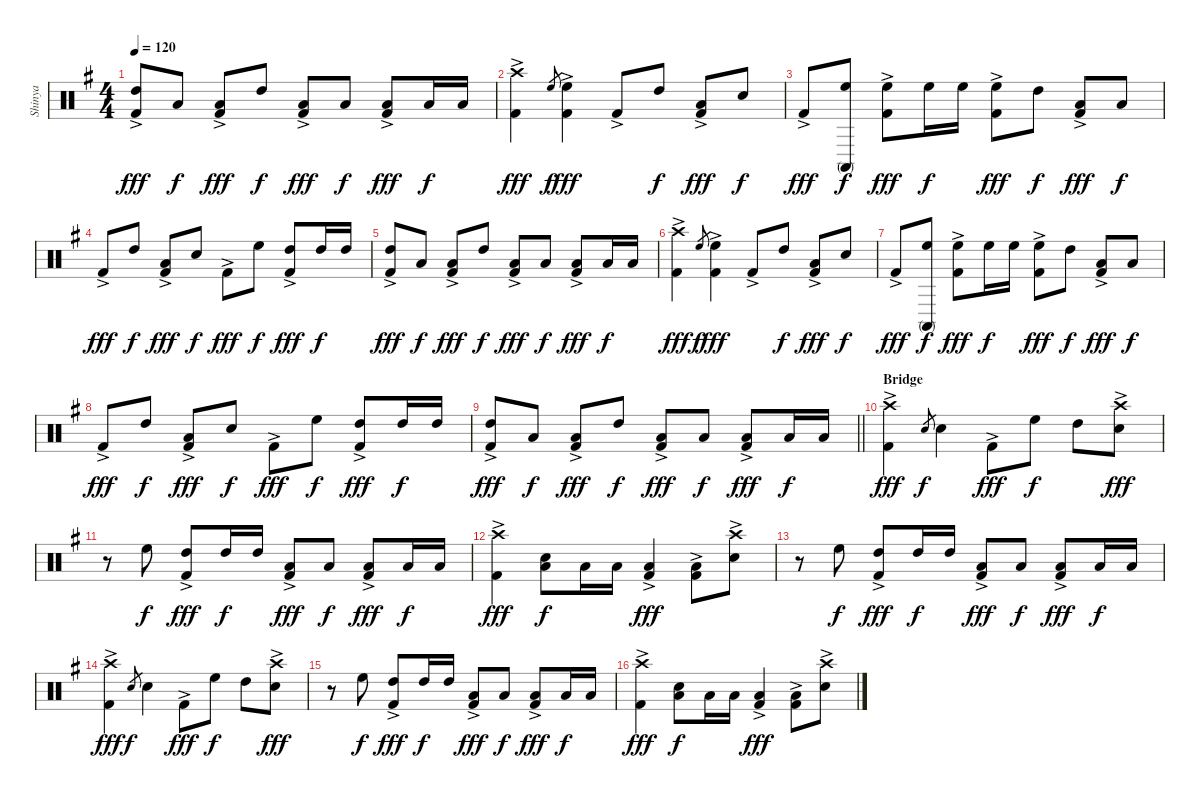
\track ("Shinya" "Shinya") {instrument percussion}
\staff {score}
\articulation defaults
\ts (4 4)
\tempo 120
\clef neutral
\ks g
("High Tom (hit)" "Kick (hit) 2"{ac}).8{dy fff} "Low Tom (hit)".8{dy f} ("Low Floor Tom (hit)" "Kick (hit) 2"{ac}).8{dy fff} "High Tom (hit)".8{dy f} ("Low Tom (hit)" "Kick (hit) 2"{ac}).8{dy fff} "Low Floor Tom (hit)".8{dy f} ("Low Floor Tom (hit)" "Kick (hit) 2"{ac}).8{dy fff} "Low Floor Tom (hit)".16{dy f} "Low Floor Tom (hit)".16 |
("Crash high (hit)"{ac} "Kick (hit) 2").4{dy fff} "High Floor Tom (hit)".8{gr dy f} ("High Floor Tom (hit)" "Kick (hit) 2"{ac}).4{dy fff} "Kick (hit) 2"{ac}.8 "High Tom (hit)".8{dy f} ("Low Tom (hit)" "Kick (hit) 2"{ac}).8{dy fff} "Snare (hit) 2".8{dy f} |
"Kick (hit) 2"{ac}.8{dy fff} ("Conga high (mute)" "High Floor Tom (hit)").8{dy f} ("High Floor Tom (hit)" "Kick (hit) 2"{ac}).8{dy fff} "High Floor Tom (hit)".16{dy f} "High Floor Tom (hit)".16 ("High Floor Tom (hit)" "Kick (hit) 2"{ac}).8{dy fff} "High Tom (hit)".8{dy f} ("Low Tom (hit)" "Kick (hit) 2"{ac}).8{dy fff} "Low Floor Tom (hit)".8{dy f} |
"Kick (hit) 2"{ac}.8{dy fff} "High Tom (hit)".8{dy f} ("Low Tom (hit)" "Kick (hit) 2"{ac}).8{dy fff} "Snare (hit) 2".8{dy f} "Kick (hit) 2"{ac}.8{dy fff} "High Floor Tom (hit)".8{dy f} ("High Tom (hit)" "Kick (hit) 2"{ac}).8{dy fff} "High Tom (hit)".16{dy f} "High Tom (hit)".16 |
("High Tom (hit)" "Kick (hit) 2"{ac}).8{dy fff} "Low Tom (hit)".8{dy f} ("Low Floor Tom (hit)" "Kick (hit) 2"{ac}).8{dy fff} "High Tom (hit)".8{dy f} ("Low Tom (hit)" "Kick (hit) 2"{ac}).8{dy fff} "Low Floor Tom (hit)".8{dy f} ("Low Floor Tom (hit)" "Kick (hit) 2"{ac}).8{dy fff} "Low Floor Tom (hit)".16{dy f} "Low Floor Tom (hit)".16 |
("Crash high (hit)"{ac} "Kick (hit) 2").4{dy fff} "High Floor Tom (hit)".8{gr dy f} ("High Floor Tom (hit)" "Kick (hit) 2"{ac}).4{dy fff} "Kick (hit) 2"{ac}.8 "High Tom (hit)".8{dy f} ("Low Tom (hit)" "Kick (hit) 2"{ac}).8{dy fff} "Snare (hit) 2".8{dy f} |
"Kick (hit) 2"{ac}.8{dy fff} ("Conga high (mute)" "High Floor Tom (hit)").8{dy f} ("High Floor Tom (hit)" "Kick (hit) 2"{ac}).8{dy fff} "High Floor Tom (hit)".16{dy f} "High Floor Tom (hit)".16 ("High Floor Tom (hit)" "Kick (hit) 2"{ac}).8{dy fff} "High Tom (hit)".8{dy f} ("Low Tom (hit)" "Kick (hit) 2"{ac}).8{dy fff} "Low Floor Tom (hit)".8{dy f} |
"Kick (hit) 2"{ac}.8{dy fff} "High Tom (hit)".8{dy f} ("Low Tom (hit)" "Kick (hit) 2"{ac}).8{dy fff} "Snare (hit) 2".8{dy f} "Kick (hit) 2"{ac}.8{dy fff} "High Floor Tom (hit)".8{dy f} ("High Tom (hit)" "Kick (hit) 2"{ac}).8{dy fff} "High Tom (hit)".16{dy f} "High Tom (hit)".16 |
\barLineRight lightlight
("High Tom (hit)" "Kick (hit) 2"{ac}).8{dy fff} "Low Tom (hit)".8{dy f} ("Low Floor Tom (hit)" "Kick (hit) 2"{ac}).8{dy fff} "High Tom (hit)".8{dy f} ("Low Tom (hit)" "Kick (hit) 2"{ac}).8{dy fff} "Low Floor Tom (hit)".8{dy f} ("Low Floor Tom (hit)" "Kick (hit) 2"{ac}).8{dy fff} "Low Floor Tom (hit)".16{dy f} "Low Floor Tom (hit)".16 |
\section ("" "Bridge")
("Crash high (hit)"{ac} "Kick (hit) 2"{ac}).4{dy fff} "Snare (hit) 2".8{gr dy f} "Snare (hit) 2".4 "Kick (hit) 2"{ac}.8{dy fff} "High Floor Tom (hit)".8{dy f} "High Tom (hit)".8 ("Crash high (hit)"{ac} "Snare (hit) 2").8{dy fff} |
r.8 "High Floor Tom (hit)".8{dy f} ("High Tom (hit)" "Kick (hit) 2"{ac}).8{dy fff} "High Tom (hit)".16{dy f} "High Tom (hit)".16 ("Low Tom (hit)" "Kick (hit) 2"{ac}).8{dy fff} "Low Tom (hit)".8{dy f} ("Low Floor Tom (hit)" "Kick (hit) 2"{ac}).8{dy fff} "Low Floor Tom (hit)".16{dy f} "Low Floor Tom (hit)".16 |
("Crash high (hit)"{ac} "Kick (hit) 2"{ac}).4{dy fff} ("Snare (hit) 2" "Low Floor Tom (hit)").8{dy f} "Low Floor Tom (hit)".16 "Low Floor Tom (hit)".16 ("Low Floor Tom (hit)" "Kick (hit) 2"{ac}).4{dy fff} ("Low Floor Tom (hit)" "Kick (hit) 2"{ac}).8 ("Crash high (hit)"{ac} "Snare (hit) 2").8 |
r.8 "High Floor Tom (hit)".8{dy f} ("High Tom (hit)" "Kick (hit) 2"{ac}).8{dy fff} "High Tom (hit)".16{dy f} "High Tom (hit)".16 ("Low Tom (hit)" "Kick (hit) 2"{ac}).8{dy fff} "Low Tom (hit)".8{dy f} ("Low Floor Tom (hit)" "Kick (hit) 2"{ac}).8{dy fff} "Low Floor Tom (hit)".16{dy f} "Low Floor Tom (hit)".16 |
("Crash high (hit)"{ac} "Kick (hit) 2"{ac}).4{dy fff} "Snare (hit) 2".8{gr dy f} "Snare (hit) 2".4 "Kick (hit) 2"{ac}.8{dy fff} "High Floor Tom (hit)".8{dy f} "High Tom (hit)".8 ("Crash high (hit)"{ac} "Snare (hit) 2").8{dy fff} |
r.8 "High Floor Tom (hit)".8{dy f} ("High Tom (hit)" "Kick (hit) 2"{ac}).8{dy fff} "High Tom (hit)".16{dy f} "High Tom (hit)".16 ("Low Tom (hit)" "Kick (hit) 2"{ac}).8{dy fff} "Low Tom (hit)".8{dy f} ("Low Floor Tom (hit)" "Kick (hit) 2"{ac}).8{dy fff} "Low Floor Tom (hit)".16{dy f} "Low Floor Tom (hit)".16 |
("Crash high (hit)"{ac} "Kick (hit) 2"{ac}).4{dy fff} ("Snare (hit) 2" "Low Floor Tom (hit)").8{dy f} "Low Floor Tom (hit)".16 "Low Floor Tom (hit)".16 ("Low Floor Tom (hit)" "Kick (hit) 2"{ac}).4{dy fff} ("Low Floor Tom (hit)" "Kick (hit) 2"{ac}).8 ("Crash high (hit)"{ac} "Snare (hit) 2").8
